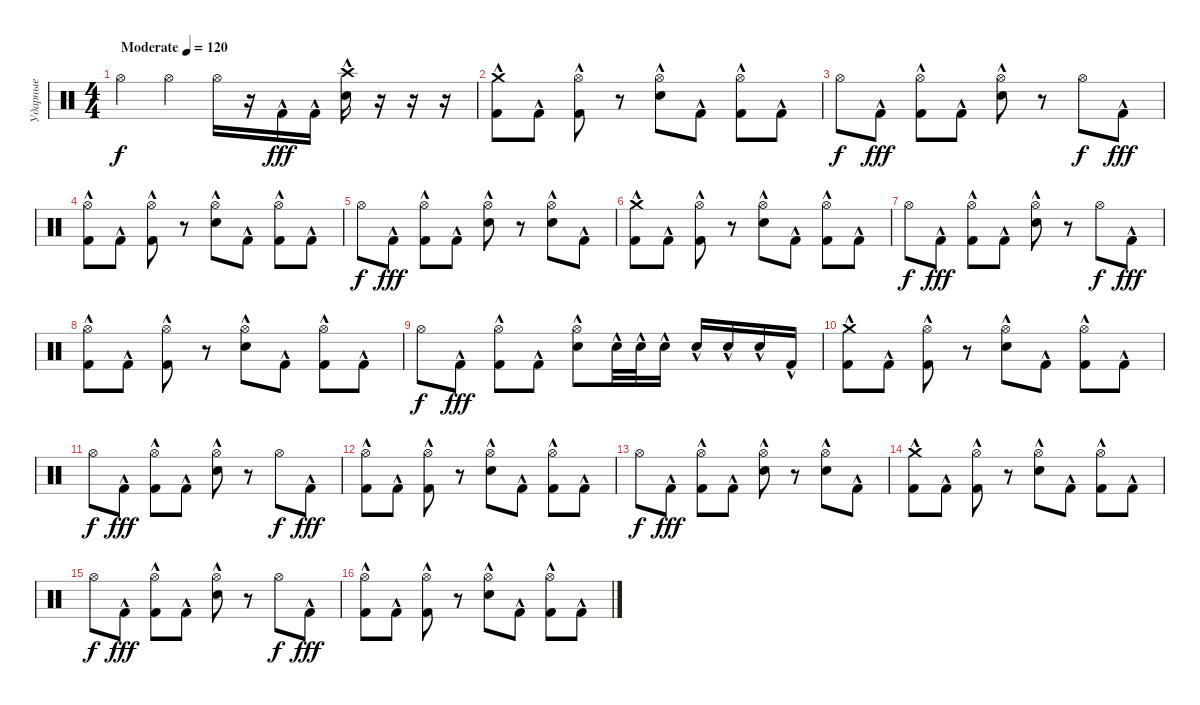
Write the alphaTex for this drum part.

\track ("Ударные" "Ударные") {instrument percussion}
\staff
\articulation defaults
\ts (4 4)
\tempo (120 "Moderate")
\clef neutral
\ks c "Hi-Hat (open)".4{dy f} "Hi-Hat (open)".4 "Hi-Hat (open)".16
r.16 "Kick (hit) 2"{hac}.16{dy fff} "Kick (hit) 2"{hac}.16 ("Crash high (hit)" "Snare (hit) 2"{hac}).16 r.16 r.16 r.16 |
("Crash medium (hit)" "Kick (hit) 2"{hac}).8 "Kick (hit) 2"{hac}.8 ("Hi-Hat (open)" "Kick (hit) 2"{hac}).8 r.8 ("Hi-Hat (open)" "Snare (hit) 2"{hac}).8 "Kick (hit) 2"{hac}.8 ("Hi-Hat (open)" "Kick (hit) 2"{hac}).8 "Kick (hit) 2"{hac}.8 |
"Hi-Hat (open)".8{dy f} "Kick (hit) 2"{hac}.8{dy fff} ("Hi-Hat (open)" "Kick (hit) 2"{hac}).8 "Kick (hit) 2"{hac}.8 ("Hi-Hat (open)" "Snare (hit) 2"{hac}).8 r.8 "Hi-Hat (open)".8{dy f} "Kick (hit) 2"{hac}.8{dy fff} |
("Hi-Hat (open)" "Kick (hit) 2"{hac}).8 "Kick (hit) 2"{hac}.8 ("Hi-Hat (open)" "Kick (hit) 2"{hac}).8 r.8 ("Hi-Hat (open)" "Snare (hit) 2"{hac}).8 "Kick (hit) 2"{hac}.8 ("Hi-Hat (open)" "Kick (hit) 2"{hac}).8 "Kick (hit) 2"{hac}.8 |
"Hi-Hat (open)".8{dy f} "Kick (hit) 2"{hac}.8{dy fff} ("Hi-Hat (open)" "Kick (hit) 2"{hac}).8 "Kick (hit) 2"{hac}.8 ("Hi-Hat (open)" "Snare (hit) 2"{hac}).8 r.8 ("Hi-Hat (open)" "Snare (hit) 2"{hac}).8 "Kick (hit) 2"{hac}.8 |
("Crash medium (hit)" "Kick (hit) 2"{hac}).8 "Kick (hit) 2"{hac}.8 ("Hi-Hat (open)" "Kick (hit) 2"{hac}).8 r.8 ("Hi-Hat (open)" "Snare (hit) 2"{hac}).8 "Kick (hit) 2"{hac}.8 ("Hi-Hat (open)" "Kick (hit) 2"{hac}).8 "Kick (hit) 2"{hac}.8 |
"Hi-Hat (open)".8{dy f} "Kick (hit) 2"{hac}.8{dy fff} ("Hi-Hat (open)" "Kick (hit) 2"{hac}).8 "Kick (hit) 2"{hac}.8 ("Hi-Hat (open)" "Snare (hit) 2"{hac}).8 r.8 "Hi-Hat (open)".8{dy f} "Kick (hit) 2"{hac}.8{dy fff} |
("Hi-Hat (open)" "Kick (hit) 2"{hac}).8 "Kick (hit) 2"{hac}.8 ("Hi-Hat (open)" "Kick (hit) 2"{hac}).8 r.8 ("Hi-Hat (open)" "Snare (hit) 2"{hac}).8 "Kick (hit) 2"{hac}.8 ("Hi-Hat (open)" "Kick (hit) 2"{hac}).8 "Kick (hit) 2"{hac}.8 |
"Hi-Hat (open)".8{dy f} "Kick (hit) 2"{hac}.8{dy fff} ("Hi-Hat (open)" "Kick (hit) 2"{hac}).8 "Kick (hit) 2"{hac}.8 ("Hi-Hat (open)" "Snare (hit) 2"{hac}).8 "Snare (hit) 2"{hac}.32 "Snare (hit) 2"{hac}.32 "Snare (hit) 2"{hac}.16 "Snare (hit) 2"{hac}.16 "Snare (hit) 2"{hac}.16 "Snare (hit) 2"{hac}.16 "Kick (hit) 2"{hac}.16 |
("Crash medium (hit)" "Kick (hit) 2"{hac}).8 "Kick (hit) 2"{hac}.8 ("Hi-Hat (open)" "Kick (hit) 2"{hac}).8 r.8 ("Hi-Hat (open)" "Snare (hit) 2"{hac}).8 "Kick (hit) 2"{hac}.8 ("Hi-Hat (open)" "Kick (hit) 2"{hac}).8 "Kick (hit) 2"{hac}.8 |
"Hi-Hat (open)".8{dy f} "Kick (hit) 2"{hac}.8{dy fff} ("Hi-Hat (open)" "Kick (hit) 2"{hac}).8 "Kick (hit) 2"{hac}.8 ("Hi-Hat (open)" "Snare (hit) 2"{hac}).8 r.8 "Hi-Hat (open)".8{dy f} "Kick (hit) 2"{hac}.8{dy fff} |
("Hi-Hat (open)" "Kick (hit) 2"{hac}).8 "Kick (hit) 2"{hac}.8 ("Hi-Hat (open)" "Kick (hit) 2"{hac}).8 r.8 ("Hi-Hat (open)" "Snare (hit) 2"{hac}).8 "Kick (hit) 2"{hac}.8 ("Hi-Hat (open)" "Kick (hit) 2"{hac}).8 "Kick (hit) 2"{hac}.8 |
"Hi-Hat (open)".8{dy f} "Kick (hit) 2"{hac}.8{dy fff} ("Hi-Hat (open)" "Kick (hit) 2"{hac}).8 "Kick (hit) 2"{hac}.8 ("Hi-Hat (open)" "Snare (hit) 2"{hac}).8 r.8 ("Hi-Hat (open)" "Snare (hit) 2"{hac}).8 "Kick (hit) 2"{hac}.8 |
("Crash medium (hit)" "Kick (hit) 2"{hac}).8 "Kick (hit) 2"{hac}.8 ("Hi-Hat (open)" "Kick (hit) 2"{hac}).8 r.8 ("Hi-Hat (open)" "Snare (hit) 2"{hac}).8 "Kick (hit) 2"{hac}.8 ("Hi-Hat (open)" "Kick (hit) 2"{hac}).8 "Kick (hit) 2"{hac}.8 |
"Hi-Hat (open)".8{dy f} "Kick (hit) 2"{hac}.8{dy fff} ("Hi-Hat (open)" "Kick (hit) 2"{hac}).8 "Kick (hit) 2"{hac}.8 ("Hi-Hat (open)" "Snare (hit) 2"{hac}).8 r.8 "Hi-Hat (open)".8{dy f} "Kick (hit) 2"{hac}.8{dy fff} |
("Hi-Hat (open)" "Kick (hit) 2"{hac}).8 "Kick (hit) 2"{hac}.8 ("Hi-Hat (open)" "Kick (hit) 2"{hac}).8 r.8 ("Hi-Hat (open)" "Snare (hit) 2"{hac}).8 "Kick (hit) 2"{hac}.8 ("Hi-Hat (open)" "Kick (hit) 2"{hac}).8 "Kick (hit) 2"{hac}.8
